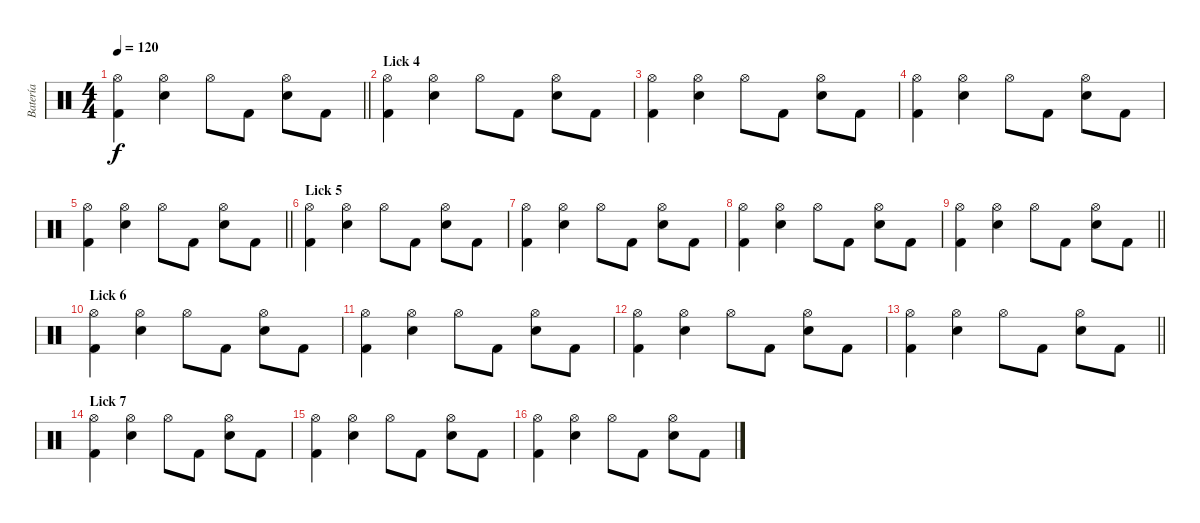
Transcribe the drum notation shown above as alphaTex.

\track ("Batería" "Batería") {instrument percussion}
\staff {score}
\articulation defaults
\ts (4 4)
\tempo 120
\clef neutral
\barLineRight lightlight
\ks c
("Hi-Hat (open)" "Kick (hit) 2").4{dy f} ("Hi-Hat (open)" "Electric Snare (hit)").4 "Hi-Hat (open)".8 "Kick (hit) 2".8 ("Hi-Hat (open)" "Electric Snare (hit)").8 "Kick (hit) 2".8 |
\section ("" "Lick 4")
("Hi-Hat (open)" "Kick (hit) 2").4 ("Hi-Hat (open)" "Electric Snare (hit)").4 "Hi-Hat (open)".8 "Kick (hit) 2".8 ("Hi-Hat (open)" "Electric Snare (hit)").8 "Kick (hit) 2".8 |
("Hi-Hat (open)" "Kick (hit) 2").4 ("Hi-Hat (open)" "Electric Snare (hit)").4 "Hi-Hat (open)".8 "Kick (hit) 2".8 ("Hi-Hat (open)" "Electric Snare (hit)").8 "Kick (hit) 2".8 |
("Hi-Hat (open)" "Kick (hit) 2").4 ("Hi-Hat (open)" "Electric Snare (hit)").4 "Hi-Hat (open)".8 "Kick (hit) 2".8 ("Hi-Hat (open)" "Electric Snare (hit)").8 "Kick (hit) 2".8 |
\barLineRight lightlight
("Hi-Hat (open)" "Kick (hit) 2").4 ("Hi-Hat (open)" "Electric Snare (hit)").4 "Hi-Hat (open)".8 "Kick (hit) 2".8 ("Hi-Hat (open)" "Electric Snare (hit)").8 "Kick (hit) 2".8 |
\section ("" "Lick 5")
("Hi-Hat (open)" "Kick (hit) 2").4 ("Hi-Hat (open)" "Electric Snare (hit)").4 "Hi-Hat (open)".8 "Kick (hit) 2".8 ("Hi-Hat (open)" "Electric Snare (hit)").8 "Kick (hit) 2".8 |
("Hi-Hat (open)" "Kick (hit) 2").4 ("Hi-Hat (open)" "Electric Snare (hit)").4 "Hi-Hat (open)".8 "Kick (hit) 2".8 ("Hi-Hat (open)" "Electric Snare (hit)").8 "Kick (hit) 2".8 |
("Hi-Hat (open)" "Kick (hit) 2").4 ("Hi-Hat (open)" "Electric Snare (hit)").4 "Hi-Hat (open)".8 "Kick (hit) 2".8 ("Hi-Hat (open)" "Electric Snare (hit)").8 "Kick (hit) 2".8 |
\barLineRight lightlight
("Hi-Hat (open)" "Kick (hit) 2").4 ("Hi-Hat (open)" "Electric Snare (hit)").4 "Hi-Hat (open)".8 "Kick (hit) 2".8 ("Hi-Hat (open)" "Electric Snare (hit)").8 "Kick (hit) 2".8 |
\section ("" "Lick 6")
("Hi-Hat (open)" "Kick (hit) 2").4 ("Hi-Hat (open)" "Electric Snare (hit)").4 "Hi-Hat (open)".8 "Kick (hit) 2".8 ("Hi-Hat (open)" "Electric Snare (hit)").8 "Kick (hit) 2".8 |
("Hi-Hat (open)" "Kick (hit) 2").4 ("Hi-Hat (open)" "Electric Snare (hit)").4 "Hi-Hat (open)".8 "Kick (hit) 2".8 ("Hi-Hat (open)" "Electric Snare (hit)").8 "Kick (hit) 2".8 |
("Hi-Hat (open)" "Kick (hit) 2").4 ("Hi-Hat (open)" "Electric Snare (hit)").4 "Hi-Hat (open)".8 "Kick (hit) 2".8 ("Hi-Hat (open)" "Electric Snare (hit)").8 "Kick (hit) 2".8 |
\barLineRight lightlight
("Hi-Hat (open)" "Kick (hit) 2").4 ("Hi-Hat (open)" "Electric Snare (hit)").4 "Hi-Hat (open)".8 "Kick (hit) 2".8 ("Hi-Hat (open)" "Electric Snare (hit)").8 "Kick (hit) 2".8 |
\section ("" "Lick 7")
("Hi-Hat (open)" "Kick (hit) 2").4 ("Hi-Hat (open)" "Electric Snare (hit)").4 "Hi-Hat (open)".8 "Kick (hit) 2".8 ("Hi-Hat (open)" "Electric Snare (hit)").8 "Kick (hit) 2".8 |
("Hi-Hat (open)" "Kick (hit) 2").4 ("Hi-Hat (open)" "Electric Snare (hit)").4 "Hi-Hat (open)".8 "Kick (hit) 2".8 ("Hi-Hat (open)" "Electric Snare (hit)").8 "Kick (hit) 2".8 |
("Hi-Hat (open)" "Kick (hit) 2").4 ("Hi-Hat (open)" "Electric Snare (hit)").4 "Hi-Hat (open)".8 "Kick (hit) 2".8 ("Hi-Hat (open)" "Electric Snare (hit)").8 "Kick (hit) 2".8
